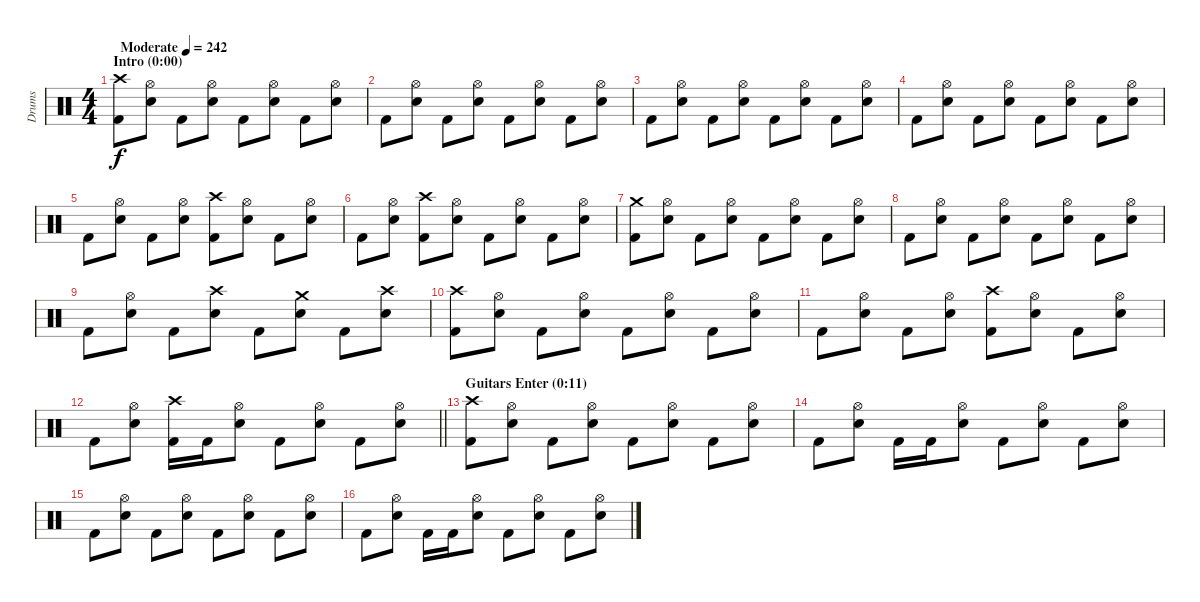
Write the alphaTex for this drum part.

\track ("Drums" "Drums") {instrument percussion}
\staff {score}
\articulation defaults
\ts (4 4)
\section ("" "Intro (0:00)")
\tempo (242 "Moderate")
\clef neutral
\ks c
("Crash high (hit)" "Kick (hit) 2").8{dy f} ("Hi-Hat (open)" "Electric Snare (hit)").8 "Kick (hit) 2".8 ("Hi-Hat (open)" "Electric Snare (hit)").8 "Kick (hit) 2".8 ("Hi-Hat (open)" "Electric Snare (hit)").8 "Kick (hit) 2".8 ("Hi-Hat (open)" "Electric Snare (hit)").8 |
"Kick (hit) 2".8 ("Hi-Hat (open)" "Electric Snare (hit)").8 "Kick (hit) 2".8 ("Hi-Hat (open)" "Electric Snare (hit)").8 "Kick (hit) 2".8 ("Hi-Hat (open)" "Electric Snare (hit)").8 "Kick (hit) 2".8 ("Hi-Hat (open)" "Electric Snare (hit)").8 |
"Kick (hit) 2".8 ("Hi-Hat (open)" "Electric Snare (hit)").8 "Kick (hit) 2".8 ("Hi-Hat (open)" "Electric Snare (hit)").8 "Kick (hit) 2".8 ("Hi-Hat (open)" "Electric Snare (hit)").8 "Kick (hit) 2".8 ("Hi-Hat (open)" "Electric Snare (hit)").8 |
"Kick (hit) 2".8 ("Hi-Hat (open)" "Electric Snare (hit)").8 "Kick (hit) 2".8 ("Hi-Hat (open)" "Electric Snare (hit)").8 "Kick (hit) 2".8 ("Hi-Hat (open)" "Electric Snare (hit)").8 "Kick (hit) 2".8 ("Hi-Hat (open)" "Electric Snare (hit)").8 |
"Kick (hit) 2".8 ("Hi-Hat (open)" "Electric Snare (hit)").8 "Kick (hit) 2".8 ("Hi-Hat (open)" "Electric Snare (hit)").8 ("Crash high (hit)" "Kick (hit) 2").8 ("Hi-Hat (open)" "Electric Snare (hit)").8 "Kick (hit) 2".8 ("Hi-Hat (open)" "Electric Snare (hit)").8 |
"Kick (hit) 2".8 ("Hi-Hat (open)" "Electric Snare (hit)").8 ("Crash high (hit)" "Kick (hit) 2").8 ("Hi-Hat (open)" "Electric Snare (hit)").8 "Kick (hit) 2".8 ("Hi-Hat (open)" "Electric Snare (hit)").8 "Kick (hit) 2".8 ("Hi-Hat (open)" "Electric Snare (hit)").8 |
("Crash medium (hit)" "Kick (hit) 2").8 ("Hi-Hat (open)" "Electric Snare (hit)").8 "Kick (hit) 2".8 ("Hi-Hat (open)" "Electric Snare (hit)").8 "Kick (hit) 2".8 ("Hi-Hat (open)" "Electric Snare (hit)").8 "Kick (hit) 2".8 ("Hi-Hat (open)" "Electric Snare (hit)").8 |
"Kick (hit) 2".8 ("Hi-Hat (open)" "Electric Snare (hit)").8 "Kick (hit) 2".8 ("Hi-Hat (open)" "Electric Snare (hit)").8 "Kick (hit) 2".8 ("Hi-Hat (open)" "Electric Snare (hit)").8 "Kick (hit) 2".8 ("Hi-Hat (open)" "Electric Snare (hit)").8 |
"Kick (hit) 2".8 ("Hi-Hat (open)" "Electric Snare (hit)").8 "Kick (hit) 2".8 ("Crash high (hit)" "Electric Snare (hit)").8 "Kick (hit) 2".8 ("Crash medium (hit)" "Electric Snare (hit)").8 "Kick (hit) 2".8 ("Crash high (hit)" "Electric Snare (hit)").8 |
("Crash high (hit)" "Kick (hit) 2").8 ("Hi-Hat (open)" "Electric Snare (hit)").8 "Kick (hit) 2".8 ("Hi-Hat (open)" "Electric Snare (hit)").8 "Kick (hit) 2".8 ("Hi-Hat (open)" "Electric Snare (hit)").8 "Kick (hit) 2".8 ("Hi-Hat (open)" "Electric Snare (hit)").8 |
"Kick (hit) 2".8 ("Hi-Hat (open)" "Electric Snare (hit)").8 "Kick (hit) 2".8 ("Hi-Hat (open)" "Electric Snare (hit)").8 ("Crash high (hit)" "Kick (hit) 2").8 ("Hi-Hat (open)" "Electric Snare (hit)").8 "Kick (hit) 2".8 ("Hi-Hat (open)" "Electric Snare (hit)").8 |
\barLineRight lightlight "Kick (hit) 2".8
("Hi-Hat (open)" "Electric Snare (hit)").8 ("Crash high (hit)" "Kick (hit) 2").16 "Kick (hit) 2".16 ("Hi-Hat (open)" "Electric Snare (hit)").8 "Kick (hit) 2".8 ("Hi-Hat (open)" "Electric Snare (hit)").8 "Kick (hit) 2".8 ("Hi-Hat (open)" "Electric Snare (hit)").8 |
\section ("" "Guitars Enter (0:11)")
("Crash high (hit)" "Kick (hit) 2").8 ("Hi-Hat (open)" "Electric Snare (hit)").8 "Kick (hit) 2".8 ("Hi-Hat (open)" "Electric Snare (hit)").8 "Kick (hit) 2".8 ("Hi-Hat (open)" "Electric Snare (hit)").8 "Kick (hit) 2".8 ("Hi-Hat (open)" "Electric Snare (hit)").8 |
"Kick (hit) 2".8 ("Hi-Hat (open)" "Electric Snare (hit)").8 "Kick (hit) 2".16 "Kick (hit) 2".16 ("Hi-Hat (open)" "Electric Snare (hit)").8 "Kick (hit) 2".8 ("Hi-Hat (open)" "Electric Snare (hit)").8 "Kick (hit) 2".8 ("Hi-Hat (open)" "Electric Snare (hit)").8 |
"Kick (hit) 2".8 ("Hi-Hat (open)" "Electric Snare (hit)").8 "Kick (hit) 2".8 ("Hi-Hat (open)" "Electric Snare (hit)").8 "Kick (hit) 2".8 ("Hi-Hat (open)" "Electric Snare (hit)").8 "Kick (hit) 2".8 ("Hi-Hat (open)" "Electric Snare (hit)").8 |
"Kick (hit) 2".8 ("Hi-Hat (open)" "Electric Snare (hit)").8 "Kick (hit) 2".16 "Kick (hit) 2".16 ("Hi-Hat (open)" "Electric Snare (hit)").8 "Kick (hit) 2".8 ("Hi-Hat (open)" "Electric Snare (hit)").8 "Kick (hit) 2".8 ("Hi-Hat (open)" "Electric Snare (hit)").8
